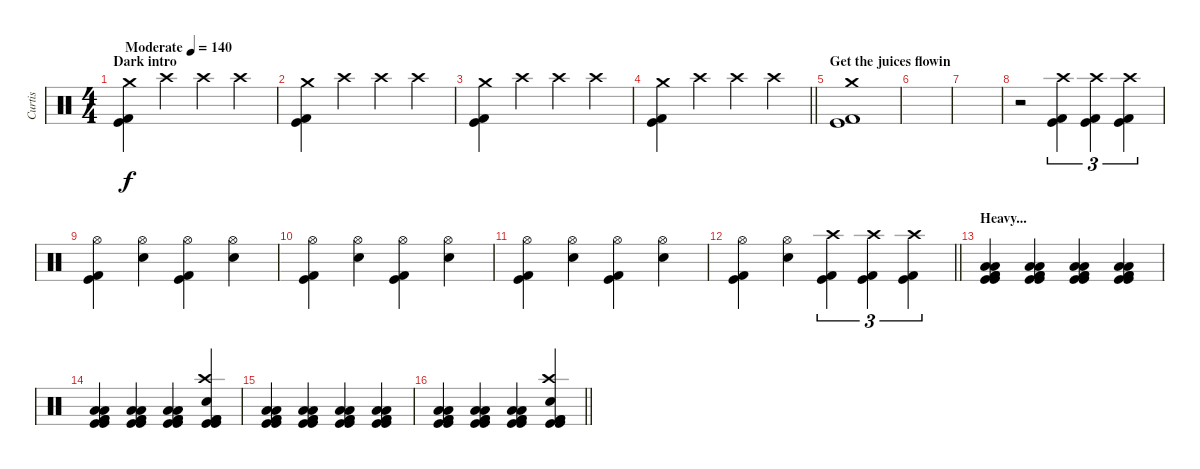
\track ("Curtis" "Curtis") {instrument percussion}
\staff {score}
\articulation defaults
\ts (4 4)
\section ("" "Dark intro")
\tempo (140 "Moderate")
\clef neutral
\ks c
("Crash medium (hit)" "Kick (hit)" "Kick (hit) 2").4{dy f} "Crash high (hit)".4 "Crash high (hit)".4 "Crash high (hit)".4 |
("Crash medium (hit)" "Kick (hit)" "Kick (hit) 2").4 "Crash high (hit)".4 "Crash high (hit)".4 "Crash high (hit)".4 |
("Crash medium (hit)" "Kick (hit)" "Kick (hit) 2").4 "Crash high (hit)".4 "Crash high (hit)".4 "Crash high (hit)".4 |
\barLineRight lightlight
("Crash medium (hit)" "Kick (hit)" "Kick (hit) 2").4 "Crash high (hit)".4 "Crash high (hit)".4 "Crash high (hit)".4 |
\section ("" "Get the juices flowin")
("Crash medium (hit)" "Kick (hit)" "Kick (hit) 2").1 |
|
|
r.2 ("Kick (hit)" "Kick (hit) 2" "Crash high (hit)").4{tu (3 2)} ("Kick (hit)" "Kick (hit) 2" "Crash high (hit)").4{tu (3 2)} ("Kick (hit)" "Kick (hit) 2" "Crash high (hit)").4{tu (3 2)} |
("Hi-Hat (open)" "Kick (hit)" "Kick (hit) 2").4 ("Hi-Hat (open)" "Electric Snare (hit)").4 ("Hi-Hat (open)" "Kick (hit)" "Kick (hit) 2").4 ("Hi-Hat (open)" "Electric Snare (hit)").4 |
("Hi-Hat (open)" "Kick (hit)" "Kick (hit) 2").4 ("Hi-Hat (open)" "Electric Snare (hit)").4 ("Hi-Hat (open)" "Kick (hit)" "Kick (hit) 2").4 ("Hi-Hat (open)" "Electric Snare (hit)").4 |
("Hi-Hat (open)" "Kick (hit)" "Kick (hit) 2").4 ("Hi-Hat (open)" "Electric Snare (hit)").4 ("Hi-Hat (open)" "Kick (hit)" "Kick (hit) 2").4 ("Hi-Hat (open)" "Electric Snare (hit)").4 |
\barLineRight lightlight
("Hi-Hat (open)" "Kick (hit)" "Kick (hit) 2").4 ("Hi-Hat (open)" "Electric Snare (hit)").4 ("Crash high (hit)" "Kick (hit)" "Kick (hit) 2").4{tu (3 2)} ("Crash high (hit)" "Kick (hit)" "Kick (hit) 2").4{tu (3 2)} ("Crash high (hit)" "Kick (hit)" "Kick (hit) 2").4{tu (3 2)} |
\section ("" "Heavy...")
("Kick (hit)" "Kick (hit)" "Kick (hit) 2" "Kick (hit) 2" "Low Floor Tom (hit)" "Low Floor Tom (hit)").4 ("Kick (hit)" "Kick (hit)" "Kick (hit) 2" "Kick (hit) 2" "Low Floor Tom (hit)" "Low Floor Tom (hit)").4 ("Kick (hit)" "Kick (hit)" "Kick (hit) 2" "Kick (hit) 2" "Low Floor Tom (hit)" "Low Floor Tom (hit)").4 ("Kick (hit)" "Kick (hit)" "Kick (hit) 2" "Kick (hit) 2" "Low Floor Tom (hit)" "Low Floor Tom (hit)").4 |
("Kick (hit)" "Kick (hit)" "Kick (hit) 2" "Kick (hit) 2" "Low Floor Tom (hit)" "Low Floor Tom (hit)").4 ("Kick (hit)" "Kick (hit)" "Kick (hit) 2" "Kick (hit) 2" "Low Floor Tom (hit)" "Low Floor Tom (hit)").4 ("Kick (hit)" "Kick (hit)" "Kick (hit) 2" "Kick (hit) 2" "Low Floor Tom (hit)" "Low Floor Tom (hit)").4 ("Kick (hit)" "Kick (hit)" "Kick (hit) 2" "Kick (hit) 2" "Electric Snare (hit)" "Crash high (hit)").4 |
("Kick (hit)" "Kick (hit)" "Kick (hit) 2" "Kick (hit) 2" "Low Floor Tom (hit)" "Low Floor Tom (hit)").4 ("Kick (hit)" "Kick (hit)" "Kick (hit) 2" "Kick (hit) 2" "Low Floor Tom (hit)" "Low Floor Tom (hit)").4 ("Kick (hit)" "Kick (hit)" "Kick (hit) 2" "Kick (hit) 2" "Low Floor Tom (hit)" "Low Floor Tom (hit)").4 ("Kick (hit)" "Kick (hit)" "Kick (hit) 2" "Kick (hit) 2" "Low Floor Tom (hit)" "Low Floor Tom (hit)").4 |
\barLineRight lightlight
("Kick (hit)" "Kick (hit)" "Kick (hit) 2" "Kick (hit) 2" "Low Floor Tom (hit)" "Low Floor Tom (hit)").4 ("Kick (hit)" "Kick (hit)" "Kick (hit) 2" "Kick (hit) 2" "Low Floor Tom (hit)" "Low Floor Tom (hit)").4 ("Kick (hit)" "Kick (hit)" "Kick (hit) 2" "Kick (hit) 2" "Low Floor Tom (hit)" "Low Floor Tom (hit)").4 ("Kick (hit)" "Kick (hit)" "Kick (hit) 2" "Kick (hit) 2" "Electric Snare (hit)" "Crash high (hit)").4
